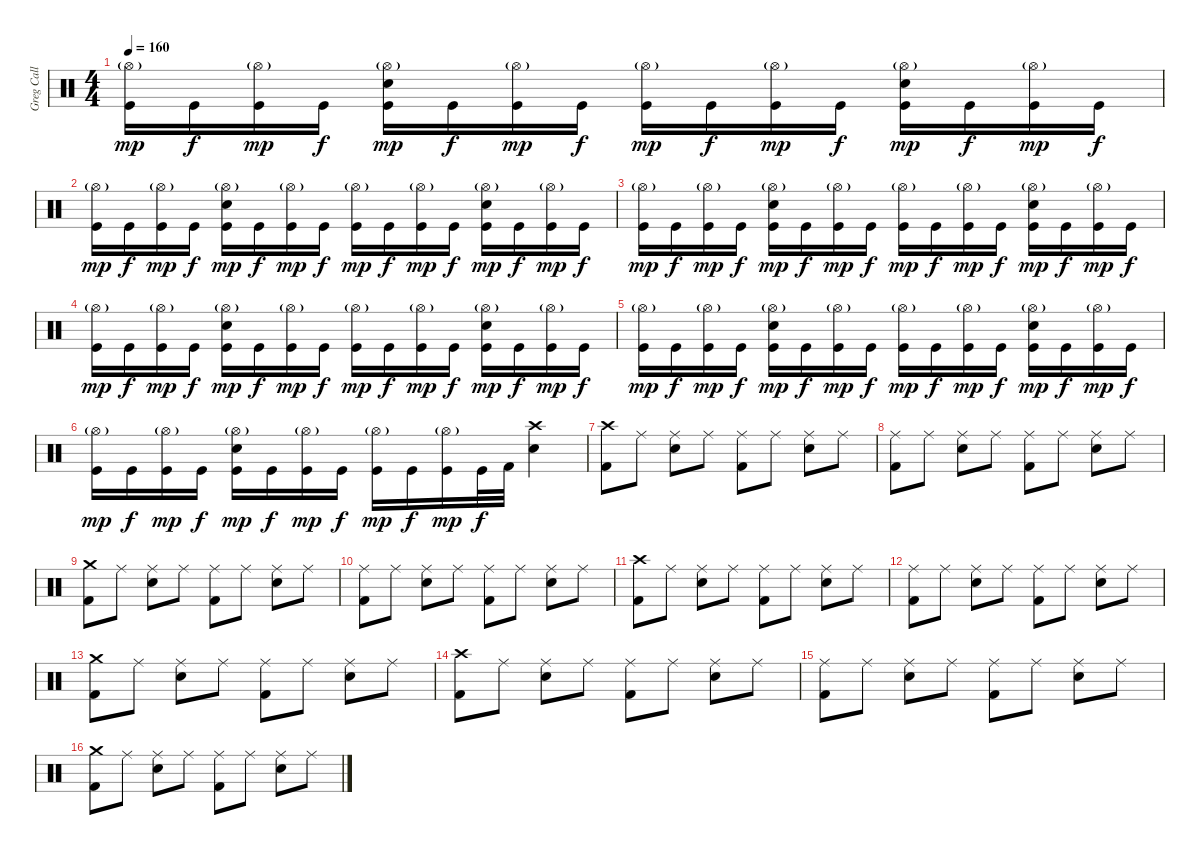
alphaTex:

\track ("Greg Call (Drums)" "Greg Call ") {instrument percussion}
\staff {score}
\articulation defaults
\ts (4 4)
\tempo 160
\clef neutral
\ks c
("Hi-Hat (open)"{g} "Kick (hit)").16{dy mp} "Kick (hit)".16{dy f} ("Hi-Hat (open)"{g} "Kick (hit)").16{dy mp} "Kick (hit)".16{dy f} ("Hi-Hat (open)"{g} "Electric Snare (hit)" "Kick (hit)").16{dy mp} "Kick (hit)".16{dy f} ("Hi-Hat (open)"{g} "Kick (hit)").16{dy mp} "Kick (hit)".16{dy f} ("Hi-Hat (open)"{g} "Kick (hit)").16{dy mp} "Kick (hit)".16{dy f} ("Hi-Hat (open)"{g} "Kick (hit)").16{dy mp} "Kick (hit)".16{dy f} ("Hi-Hat (open)"{g} "Electric Snare (hit)" "Kick (hit)").16{dy mp} "Kick (hit)".16{dy f} ("Hi-Hat (open)"{g} "Kick (hit)").16{dy mp} "Kick (hit)".16{dy f} |
("Hi-Hat (open)"{g} "Kick (hit)").16{dy mp} "Kick (hit)".16{dy f} ("Hi-Hat (open)"{g} "Kick (hit)").16{dy mp} "Kick (hit)".16{dy f} ("Hi-Hat (open)"{g} "Electric Snare (hit)" "Kick (hit)").16{dy mp} "Kick (hit)".16{dy f} ("Hi-Hat (open)"{g} "Kick (hit)").16{dy mp} "Kick (hit)".16{dy f} ("Hi-Hat (open)"{g} "Kick (hit)").16{dy mp} "Kick (hit)".16{dy f} ("Hi-Hat (open)"{g} "Kick (hit)").16{dy mp} "Kick (hit)".16{dy f} ("Hi-Hat (open)"{g} "Electric Snare (hit)" "Kick (hit)").16{dy mp} "Kick (hit)".16{dy f} ("Hi-Hat (open)"{g} "Kick (hit)").16{dy mp} "Kick (hit)".16{dy f} |
("Hi-Hat (open)"{g} "Kick (hit)").16{dy mp} "Kick (hit)".16{dy f} ("Hi-Hat (open)"{g} "Kick (hit)").16{dy mp} "Kick (hit)".16{dy f} ("Hi-Hat (open)"{g} "Electric Snare (hit)" "Kick (hit)").16{dy mp} "Kick (hit)".16{dy f} ("Hi-Hat (open)"{g} "Kick (hit)").16{dy mp} "Kick (hit)".16{dy f} ("Hi-Hat (open)"{g} "Kick (hit)").16{dy mp} "Kick (hit)".16{dy f} ("Hi-Hat (open)"{g} "Kick (hit)").16{dy mp} "Kick (hit)".16{dy f} ("Hi-Hat (open)"{g} "Electric Snare (hit)" "Kick (hit)").16{dy mp} "Kick (hit)".16{dy f} ("Hi-Hat (open)"{g} "Kick (hit)").16{dy mp} "Kick (hit)".16{dy f} |
("Hi-Hat (open)"{g} "Kick (hit)").16{dy mp} "Kick (hit)".16{dy f} ("Hi-Hat (open)"{g} "Kick (hit)").16{dy mp} "Kick (hit)".16{dy f} ("Hi-Hat (open)"{g} "Electric Snare (hit)" "Kick (hit)").16{dy mp} "Kick (hit)".16{dy f} ("Hi-Hat (open)"{g} "Kick (hit)").16{dy mp} "Kick (hit)".16{dy f} ("Hi-Hat (open)"{g} "Kick (hit)").16{dy mp} "Kick (hit)".16{dy f} ("Hi-Hat (open)"{g} "Kick (hit)").16{dy mp} "Kick (hit)".16{dy f} ("Hi-Hat (open)"{g} "Electric Snare (hit)" "Kick (hit)").16{dy mp} "Kick (hit)".16{dy f} ("Hi-Hat (open)"{g} "Kick (hit)").16{dy mp} "Kick (hit)".16{dy f} |
("Hi-Hat (open)"{g} "Kick (hit)").16{dy mp} "Kick (hit)".16{dy f} ("Hi-Hat (open)"{g} "Kick (hit)").16{dy mp} "Kick (hit)".16{dy f} ("Hi-Hat (open)"{g} "Electric Snare (hit)" "Kick (hit)").16{dy mp} "Kick (hit)".16{dy f} ("Hi-Hat (open)"{g} "Kick (hit)").16{dy mp} "Kick (hit)".16{dy f} ("Hi-Hat (open)"{g} "Kick (hit)").16{dy mp} "Kick (hit)".16{dy f} ("Hi-Hat (open)"{g} "Kick (hit)").16{dy mp} "Kick (hit)".16{dy f} ("Hi-Hat (open)"{g} "Electric Snare (hit)" "Kick (hit)").16{dy mp} "Kick (hit)".16{dy f} ("Hi-Hat (open)"{g} "Kick (hit)").16{dy mp} "Kick (hit)".16{dy f} |
("Hi-Hat (open)"{g} "Kick (hit)").16{dy mp} "Kick (hit)".16{dy f} ("Hi-Hat (open)"{g} "Kick (hit)").16{dy mp} "Kick (hit)".16{dy f} ("Hi-Hat (open)"{g} "Electric Snare (hit)" "Kick (hit)").16{dy mp} "Kick (hit)".16{dy f} ("Hi-Hat (open)"{g} "Kick (hit)").16{dy mp} "Kick (hit)".16{dy f} ("Hi-Hat (open)"{g} "Kick (hit)").16{dy mp} "Kick (hit)".16{dy f} ("Hi-Hat (open)"{g} "Kick (hit)").16{dy mp} "Kick (hit)".32{dy f} "Kick (hit) 2".32 ("Crash high (hit)" "Electric Snare (hit)").4 |
("Crash high (hit)" "Kick (hit) 2").8 "Ride (middle)".8 ("Ride (middle)" "Electric Snare (hit)").8 "Ride (middle)".8 ("Ride (middle)" "Kick (hit) 2").8 "Ride (middle)".8 ("Ride (middle)" "Electric Snare (hit)").8 "Ride (middle)".8 |
("Ride (middle)" "Kick (hit) 2").8 "Ride (middle)".8 ("Ride (middle)" "Electric Snare (hit)").8 "Ride (middle)".8 ("Ride (middle)" "Kick (hit) 2").8 "Ride (middle)".8 ("Ride (middle)" "Electric Snare (hit)").8 "Ride (middle)".8 |
("Crash medium (hit)" "Kick (hit) 2").8 "Ride (middle)".8 ("Ride (middle)" "Electric Snare (hit)").8 "Ride (middle)".8 ("Ride (middle)" "Kick (hit) 2").8 "Ride (middle)".8 ("Ride (middle)" "Electric Snare (hit)").8 "Ride (middle)".8 |
("Ride (middle)" "Kick (hit) 2").8 "Ride (middle)".8 ("Ride (middle)" "Electric Snare (hit)").8 "Ride (middle)".8 ("Ride (middle)" "Kick (hit) 2").8 "Ride (middle)".8 ("Ride (middle)" "Electric Snare (hit)").8 "Ride (middle)".8 |
("Crash high (hit)" "Kick (hit) 2").8 "Ride (middle)".8 ("Ride (middle)" "Electric Snare (hit)").8 "Ride (middle)".8 ("Ride (middle)" "Kick (hit) 2").8 "Ride (middle)".8 ("Ride (middle)" "Electric Snare (hit)").8 "Ride (middle)".8 |
("Ride (middle)" "Kick (hit) 2").8 "Ride (middle)".8 ("Ride (middle)" "Electric Snare (hit)").8 "Ride (middle)".8 ("Ride (middle)" "Kick (hit) 2").8 "Ride (middle)".8 ("Ride (middle)" "Electric Snare (hit)").8 "Ride (middle)".8 |
("Crash medium (hit)" "Kick (hit) 2").8 "Ride (middle)".8 ("Ride (middle)" "Electric Snare (hit)").8 "Ride (middle)".8 ("Ride (middle)" "Kick (hit) 2").8 "Ride (middle)".8 ("Ride (middle)" "Electric Snare (hit)").8 "Ride (middle)".8 |
("Crash high (hit)" "Kick (hit) 2").8 "Ride (middle)".8 ("Ride (middle)" "Electric Snare (hit)").8 "Ride (middle)".8 ("Ride (middle)" "Kick (hit) 2").8 "Ride (middle)".8 ("Ride (middle)" "Electric Snare (hit)").8 "Ride (middle)".8 |
("Ride (middle)" "Kick (hit) 2").8 "Ride (middle)".8 ("Ride (middle)" "Electric Snare (hit)").8 "Ride (middle)".8 ("Ride (middle)" "Kick (hit) 2").8 "Ride (middle)".8 ("Ride (middle)" "Electric Snare (hit)").8 "Ride (middle)".8 |
("Crash medium (hit)" "Kick (hit) 2").8 "Ride (middle)".8 ("Ride (middle)" "Electric Snare (hit)").8 "Ride (middle)".8 ("Ride (middle)" "Kick (hit) 2").8 "Ride (middle)".8 ("Ride (middle)" "Electric Snare (hit)").8 "Ride (middle)".8
